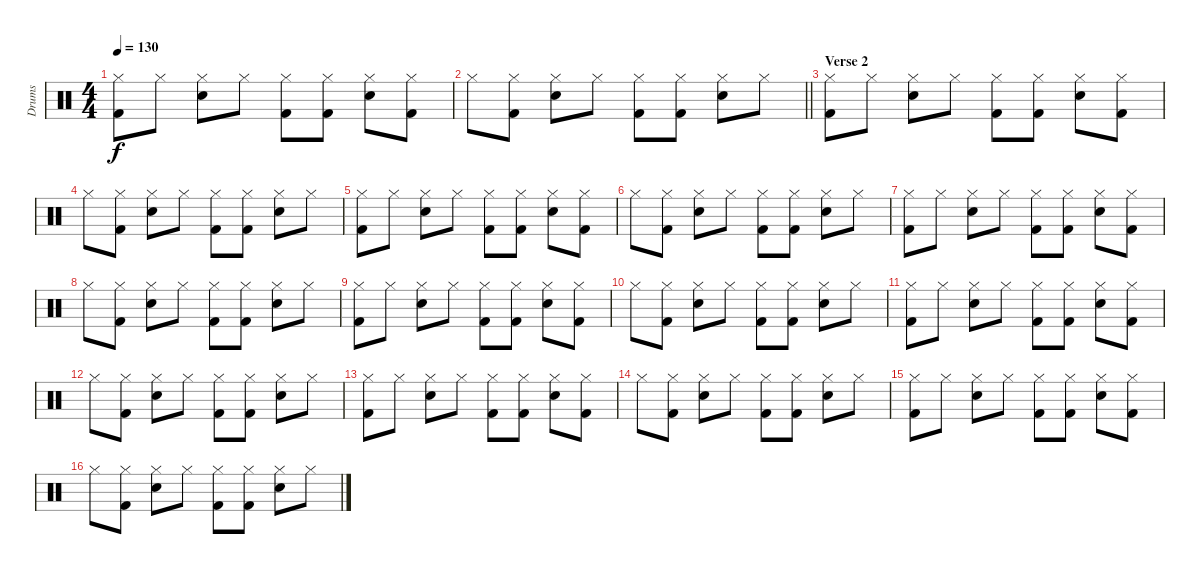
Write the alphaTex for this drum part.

\track ("Drums" "Drums") {instrument percussion}
\staff {score}
\articulation defaults
\ts (4 4)
\tempo 130
\clef neutral
\ks c
("Hi-Hat (closed)" "Kick (hit) 2").8{dy f} "Hi-Hat (closed)".8 ("Hi-Hat (closed)" "Electric Snare (hit)").8 "Hi-Hat (closed)".8 ("Hi-Hat (closed)" "Kick (hit) 2").8 ("Hi-Hat (closed)" "Kick (hit) 2").8 ("Hi-Hat (closed)" "Electric Snare (hit)").8 ("Hi-Hat (closed)" "Kick (hit) 2").8 |
\barLineRight lightlight "Hi-Hat (closed)".8
("Hi-Hat (closed)" "Kick (hit) 2").8 ("Hi-Hat (closed)" "Electric Snare (hit)").8 "Hi-Hat (closed)".8 ("Hi-Hat (closed)" "Kick (hit) 2").8 ("Hi-Hat (closed)" "Kick (hit) 2").8 ("Hi-Hat (closed)" "Electric Snare (hit)").8 "Hi-Hat (closed)".8 |
\section ("" "Verse 2")
("Hi-Hat (closed)" "Kick (hit) 2").8 "Hi-Hat (closed)".8 ("Hi-Hat (closed)" "Electric Snare (hit)").8 "Hi-Hat (closed)".8 ("Hi-Hat (closed)" "Kick (hit) 2").8 ("Hi-Hat (closed)" "Kick (hit) 2").8 ("Hi-Hat (closed)" "Electric Snare (hit)").8 ("Hi-Hat (closed)" "Kick (hit) 2").8 |
"Hi-Hat (closed)".8 ("Hi-Hat (closed)" "Kick (hit) 2").8 ("Hi-Hat (closed)" "Electric Snare (hit)").8 "Hi-Hat (closed)".8 ("Hi-Hat (closed)" "Kick (hit) 2").8 ("Hi-Hat (closed)" "Kick (hit) 2").8 ("Hi-Hat (closed)" "Electric Snare (hit)").8 "Hi-Hat (closed)".8 |
("Hi-Hat (closed)" "Kick (hit) 2").8 "Hi-Hat (closed)".8 ("Hi-Hat (closed)" "Electric Snare (hit)").8 "Hi-Hat (closed)".8 ("Hi-Hat (closed)" "Kick (hit) 2").8 ("Hi-Hat (closed)" "Kick (hit) 2").8 ("Hi-Hat (closed)" "Electric Snare (hit)").8 ("Hi-Hat (closed)" "Kick (hit) 2").8 |
"Hi-Hat (closed)".8 ("Hi-Hat (closed)" "Kick (hit) 2").8 ("Hi-Hat (closed)" "Electric Snare (hit)").8 "Hi-Hat (closed)".8 ("Hi-Hat (closed)" "Kick (hit) 2").8 ("Hi-Hat (closed)" "Kick (hit) 2").8 ("Hi-Hat (closed)" "Electric Snare (hit)").8 "Hi-Hat (closed)".8 |
("Hi-Hat (closed)" "Kick (hit) 2").8 "Hi-Hat (closed)".8 ("Hi-Hat (closed)" "Electric Snare (hit)").8 "Hi-Hat (closed)".8 ("Hi-Hat (closed)" "Kick (hit) 2").8 ("Hi-Hat (closed)" "Kick (hit) 2").8 ("Hi-Hat (closed)" "Electric Snare (hit)").8 ("Hi-Hat (closed)" "Kick (hit) 2").8 |
"Hi-Hat (closed)".8 ("Hi-Hat (closed)" "Kick (hit) 2").8 ("Hi-Hat (closed)" "Electric Snare (hit)").8 "Hi-Hat (closed)".8 ("Hi-Hat (closed)" "Kick (hit) 2").8 ("Hi-Hat (closed)" "Kick (hit) 2").8 ("Hi-Hat (closed)" "Electric Snare (hit)").8 "Hi-Hat (closed)".8 |
("Hi-Hat (closed)" "Kick (hit) 2").8 "Hi-Hat (closed)".8 ("Hi-Hat (closed)" "Electric Snare (hit)").8 "Hi-Hat (closed)".8 ("Hi-Hat (closed)" "Kick (hit) 2").8 ("Hi-Hat (closed)" "Kick (hit) 2").8 ("Hi-Hat (closed)" "Electric Snare (hit)").8 ("Hi-Hat (closed)" "Kick (hit) 2").8 |
"Hi-Hat (closed)".8 ("Hi-Hat (closed)" "Kick (hit) 2").8 ("Hi-Hat (closed)" "Electric Snare (hit)").8 "Hi-Hat (closed)".8 ("Hi-Hat (closed)" "Kick (hit) 2").8 ("Hi-Hat (closed)" "Kick (hit) 2").8 ("Hi-Hat (closed)" "Electric Snare (hit)").8 "Hi-Hat (closed)".8 |
("Hi-Hat (closed)" "Kick (hit) 2").8 "Hi-Hat (closed)".8 ("Hi-Hat (closed)" "Electric Snare (hit)").8 "Hi-Hat (closed)".8 ("Hi-Hat (closed)" "Kick (hit) 2").8 ("Hi-Hat (closed)" "Kick (hit) 2").8 ("Hi-Hat (closed)" "Electric Snare (hit)").8 ("Hi-Hat (closed)" "Kick (hit) 2").8 |
"Hi-Hat (closed)".8 ("Hi-Hat (closed)" "Kick (hit) 2").8 ("Hi-Hat (closed)" "Electric Snare (hit)").8 "Hi-Hat (closed)".8 ("Hi-Hat (closed)" "Kick (hit) 2").8 ("Hi-Hat (closed)" "Kick (hit) 2").8 ("Hi-Hat (closed)" "Electric Snare (hit)").8 "Hi-Hat (closed)".8 |
("Hi-Hat (closed)" "Kick (hit) 2").8 "Hi-Hat (closed)".8 ("Hi-Hat (closed)" "Electric Snare (hit)").8 "Hi-Hat (closed)".8 ("Hi-Hat (closed)" "Kick (hit) 2").8 ("Hi-Hat (closed)" "Kick (hit) 2").8 ("Hi-Hat (closed)" "Electric Snare (hit)").8 ("Hi-Hat (closed)" "Kick (hit) 2").8 |
"Hi-Hat (closed)".8 ("Hi-Hat (closed)" "Kick (hit) 2").8 ("Hi-Hat (closed)" "Electric Snare (hit)").8 "Hi-Hat (closed)".8 ("Hi-Hat (closed)" "Kick (hit) 2").8 ("Hi-Hat (closed)" "Kick (hit) 2").8 ("Hi-Hat (closed)" "Electric Snare (hit)").8 "Hi-Hat (closed)".8 |
("Hi-Hat (closed)" "Kick (hit) 2").8 "Hi-Hat (closed)".8 ("Hi-Hat (closed)" "Electric Snare (hit)").8 "Hi-Hat (closed)".8 ("Hi-Hat (closed)" "Kick (hit) 2").8 ("Hi-Hat (closed)" "Kick (hit) 2").8 ("Hi-Hat (closed)" "Electric Snare (hit)").8 ("Hi-Hat (closed)" "Kick (hit) 2").8 |
"Hi-Hat (closed)".8 ("Hi-Hat (closed)" "Kick (hit) 2").8 ("Hi-Hat (closed)" "Electric Snare (hit)").8 "Hi-Hat (closed)".8 ("Hi-Hat (closed)" "Kick (hit) 2").8 ("Hi-Hat (closed)" "Kick (hit) 2").8 ("Hi-Hat (closed)" "Electric Snare (hit)").8 "Hi-Hat (closed)".8
